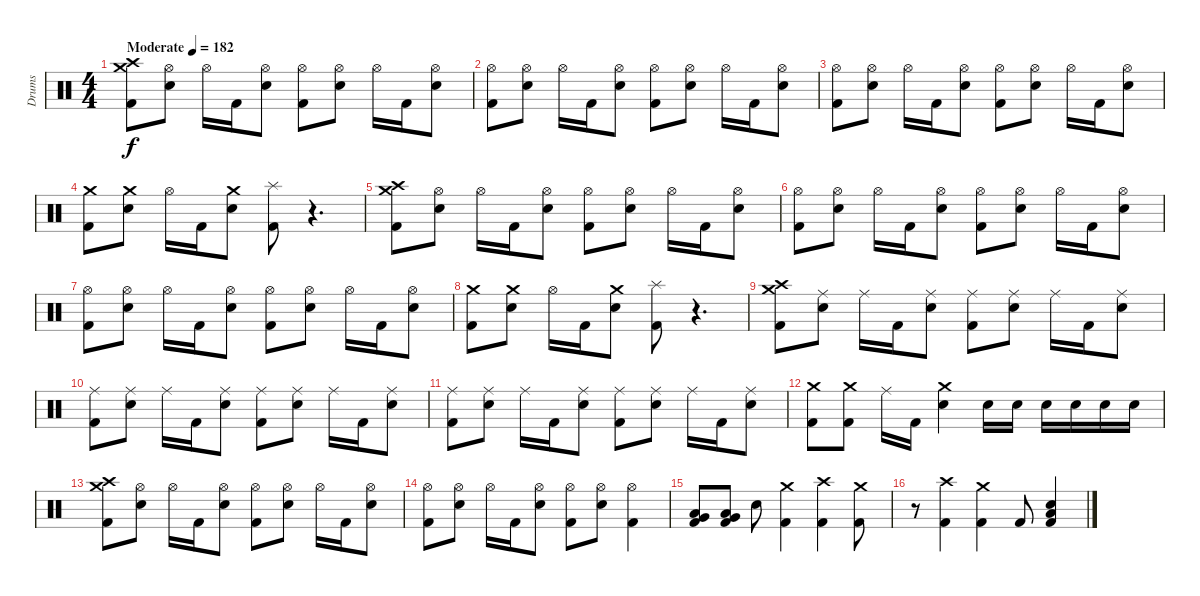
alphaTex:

\track ("Drums" "Drums") {instrument percussion}
\staff {score}
\articulation defaults
\ts (4 4)
\tempo (182 "Moderate")
\clef neutral
\ks c
("Crash medium (hit)" "Crash high (hit)" "Kick (hit) 2").8{dy f} ("Hi-Hat (open)" "Electric Snare (hit)").8 "Hi-Hat (open)".16 "Kick (hit) 2".16 ("Hi-Hat (open)" "Electric Snare (hit)").8 ("Hi-Hat (open)" "Kick (hit) 2").8 ("Hi-Hat (open)" "Electric Snare (hit)").8 "Hi-Hat (open)".16 "Kick (hit) 2".16 ("Hi-Hat (open)" "Electric Snare (hit)").8 |
("Hi-Hat (open)" "Kick (hit) 2").8 ("Hi-Hat (open)" "Electric Snare (hit)").8 "Hi-Hat (open)".16 "Kick (hit) 2".16 ("Hi-Hat (open)" "Electric Snare (hit)").8 ("Hi-Hat (open)" "Kick (hit) 2").8 ("Hi-Hat (open)" "Electric Snare (hit)").8 "Hi-Hat (open)".16 "Kick (hit) 2".16 ("Hi-Hat (open)" "Electric Snare (hit)").8 |
("Hi-Hat (open)" "Kick (hit) 2").8 ("Hi-Hat (open)" "Electric Snare (hit)").8 "Hi-Hat (open)".16 "Kick (hit) 2".16 ("Hi-Hat (open)" "Electric Snare (hit)").8 ("Hi-Hat (open)" "Kick (hit) 2").8 ("Hi-Hat (open)" "Electric Snare (hit)").8 "Hi-Hat (open)".16 "Kick (hit) 2".16 ("Hi-Hat (open)" "Electric Snare (hit)").8 |
("Crash medium (hit)" "Kick (hit) 2").8 ("Crash medium (hit)" "Electric Snare (hit)").8 "Hi-Hat (open)".16 "Kick (hit) 2".16 ("Crash medium (hit)" "Electric Snare (hit)").8 ("Splash (hit)" "Kick (hit) 2").8 r.4{d volume 0} |
("Crash medium (hit)" "Crash high (hit)" "Kick (hit) 2").8{volume 16} ("Hi-Hat (open)" "Electric Snare (hit)").8 "Hi-Hat (open)".16 "Kick (hit) 2".16 ("Hi-Hat (open)" "Electric Snare (hit)").8 ("Hi-Hat (open)" "Kick (hit) 2").8 ("Hi-Hat (open)" "Electric Snare (hit)").8 "Hi-Hat (open)".16 "Kick (hit) 2".16 ("Hi-Hat (open)" "Electric Snare (hit)").8 |
("Hi-Hat (open)" "Kick (hit) 2").8 ("Hi-Hat (open)" "Electric Snare (hit)").8 "Hi-Hat (open)".16 "Kick (hit) 2".16 ("Hi-Hat (open)" "Electric Snare (hit)").8 ("Hi-Hat (open)" "Kick (hit) 2").8 ("Hi-Hat (open)" "Electric Snare (hit)").8 "Hi-Hat (open)".16 "Kick (hit) 2".16 ("Hi-Hat (open)" "Electric Snare (hit)").8 |
("Hi-Hat (open)" "Kick (hit) 2").8 ("Hi-Hat (open)" "Electric Snare (hit)").8 "Hi-Hat (open)".16 "Kick (hit) 2".16 ("Hi-Hat (open)" "Electric Snare (hit)").8 ("Hi-Hat (open)" "Kick (hit) 2").8 ("Hi-Hat (open)" "Electric Snare (hit)").8 "Hi-Hat (open)".16 "Kick (hit) 2".16 ("Hi-Hat (open)" "Electric Snare (hit)").8 |
("Crash medium (hit)" "Kick (hit) 2").8 ("Crash medium (hit)" "Electric Snare (hit)").8 "Hi-Hat (open)".16 "Kick (hit) 2".16 ("Crash medium (hit)" "Electric Snare (hit)").8 ("Splash (hit)" "Kick (hit) 2").8 r.4{d volume 0} |
("Crash medium (hit)" "Crash high (hit)" "Kick (hit) 2").8{volume 16} ("Ride (middle)" "Electric Snare (hit)").8 "Ride (middle)".16 "Kick (hit) 2".16 ("Ride (middle)" "Electric Snare (hit)").8 ("Ride (middle)" "Kick (hit) 2").8 ("Ride (middle)" "Electric Snare (hit)").8 "Ride (middle)".16 "Kick (hit) 2".16 ("Ride (middle)" "Electric Snare (hit)").8 |
("Ride (middle)" "Kick (hit) 2").8 ("Ride (middle)" "Electric Snare (hit)").8 "Ride (middle)".16 "Kick (hit) 2".16 ("Ride (middle)" "Electric Snare (hit)").8 ("Ride (middle)" "Kick (hit) 2").8 ("Ride (middle)" "Electric Snare (hit)").8 "Ride (middle)".16 "Kick (hit) 2".16 ("Ride (middle)" "Electric Snare (hit)").8 |
("Ride (middle)" "Kick (hit) 2").8 ("Ride (middle)" "Electric Snare (hit)").8 "Ride (middle)".16 "Kick (hit) 2".16 ("Ride (middle)" "Electric Snare (hit)").8 ("Ride (middle)" "Kick (hit) 2").8 ("Ride (middle)" "Electric Snare (hit)").8 "Ride (middle)".16 "Kick (hit) 2".16 ("Ride (middle)" "Electric Snare (hit)").8 |
("Crash medium (hit)" "Kick (hit) 2").8 ("Crash medium (hit)" "Kick (hit) 2").8 "Ride (middle)".16 "Kick (hit) 2".16 ("Crash medium (hit)" "Electric Snare (hit)").4 "Electric Snare (hit)".16 "Electric Snare (hit)".16 "Electric Snare (hit)".16 "Electric Snare (hit)".16 "Electric Snare (hit)".16 "Electric Snare (hit)".16 |
("Crash medium (hit)" "Crash high (hit)" "Kick (hit) 2").8 ("Hi-Hat (open)" "Electric Snare (hit)").8 "Hi-Hat (open)".16 "Kick (hit) 2".16 ("Hi-Hat (open)" "Electric Snare (hit)").8 ("Hi-Hat (open)" "Kick (hit) 2").8 ("Hi-Hat (open)" "Electric Snare (hit)").8 "Hi-Hat (open)".16 "Kick (hit) 2".16 ("Hi-Hat (open)" "Electric Snare (hit)").8 |
("Hi-Hat (open)" "Kick (hit) 2").8 ("Hi-Hat (open)" "Electric Snare (hit)").8 "Hi-Hat (open)".16 "Kick (hit) 2".16 ("Hi-Hat (open)" "Electric Snare (hit)").8 ("Hi-Hat (open)" "Kick (hit) 2").8 ("Hi-Hat (open)" "Electric Snare (hit)").8 ("Hi-Hat (open)" "Kick (hit) 2").4 |
("Low Floor Tom (hit)" "Very Low Tom (hit)" "Kick (hit) 2").8 ("Low Floor Tom (hit)" "Very Low Tom (hit)" "Kick (hit) 2").8 "Electric Snare (hit)".8 ("Crash medium (hit)" "Kick (hit) 2").4 ("Crash high (hit)" "Kick (hit) 2").4 ("Crash medium (hit)" "Kick (hit) 2").8 |
r.8 ("Crash high (hit)" "Kick (hit) 2").4 ("Crash medium (hit)" "Kick (hit) 2").4 "Kick (hit) 2".8 ("Low Floor Tom (hit)" "Electric Snare (hit)" "Kick (hit) 2").4
